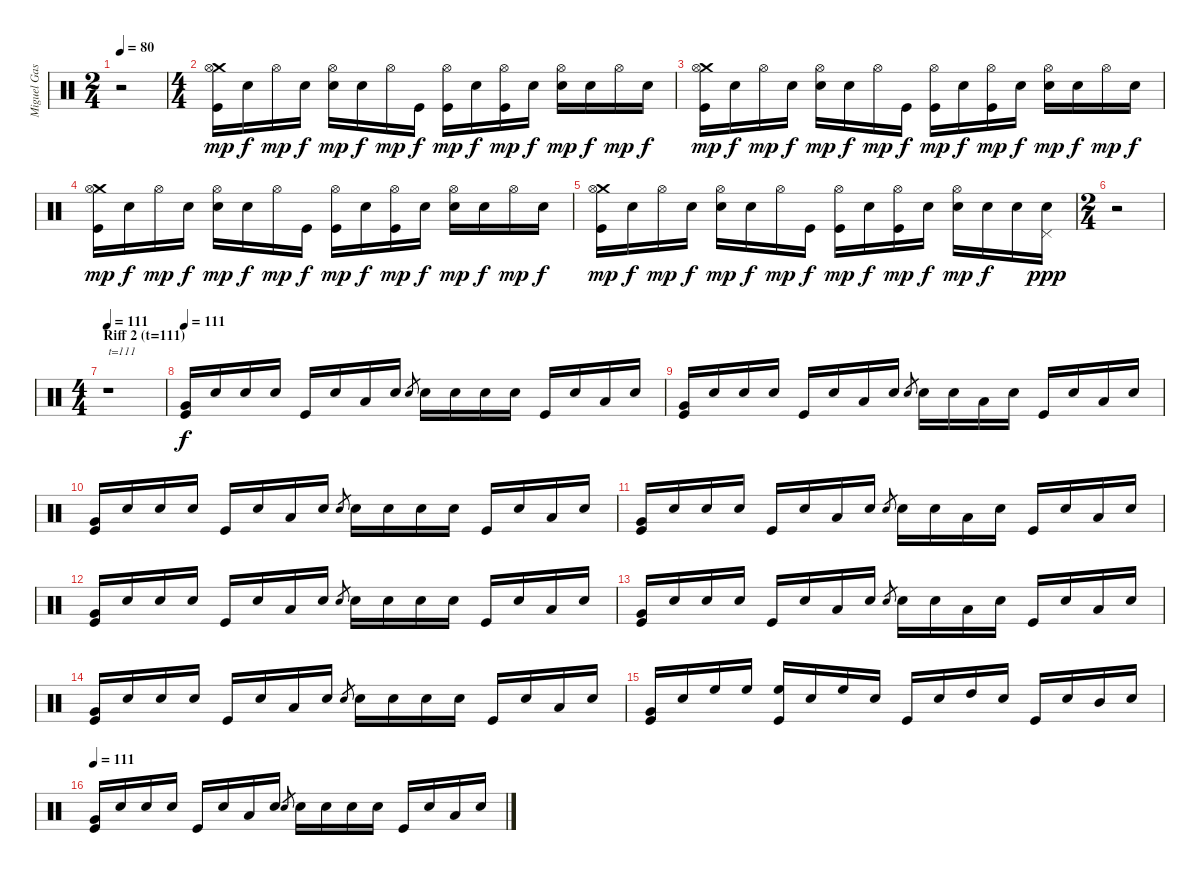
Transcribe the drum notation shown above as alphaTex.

\track ("Miguel Gaspar - Drums" "Miguel Gas") {instrument percussion}
\staff {score}
\articulation defaults
\ts (2 4)
\tempo 80
\clef neutral
\ks c
r.2{dy ppp} |
\ts (4 4)
\section ("" "")
("Crash medium (hit)" "Hi-Hat (open)" "Kick (hit)").16{dy mp} "Snare (hit)".16{dy f} "Hi-Hat (open)".16{dy mp} "Snare (hit)".16{dy f} ("Hi-Hat (open)" "Electric Snare (hit)").16{dy mp} "Snare (hit)".16{dy f} "Hi-Hat (open)".16{dy mp} "Kick (hit)".16{dy f} ("Hi-Hat (open)" "Kick (hit)").16{dy mp} "Snare (hit)".16{dy f} ("Hi-Hat (open)" "Kick (hit)").16{dy mp} "Snare (hit)".16{dy f} ("Hi-Hat (open)" "Electric Snare (hit)").16{dy mp} "Snare (hit)".16{dy f} "Hi-Hat (open)".16{dy mp} "Snare (hit)".16{dy f} |
("Crash medium (hit)" "Hi-Hat (open)" "Kick (hit)").16{dy mp} "Snare (hit)".16{dy f} "Hi-Hat (open)".16{dy mp} "Snare (hit)".16{dy f} ("Hi-Hat (open)" "Electric Snare (hit)").16{dy mp} "Snare (hit)".16{dy f} "Hi-Hat (open)".16{dy mp} "Kick (hit)".16{dy f} ("Hi-Hat (open)" "Kick (hit)").16{dy mp} "Snare (hit)".16{dy f} ("Hi-Hat (open)" "Kick (hit)").16{dy mp} "Snare (hit)".16{dy f} ("Hi-Hat (open)" "Electric Snare (hit)").16{dy mp} "Snare (hit)".16{dy f} "Hi-Hat (open)".16{dy mp} "Snare (hit)".16{dy f} |
("Crash medium (hit)" "Hi-Hat (open)" "Kick (hit)").16{dy mp} "Snare (hit)".16{dy f} "Hi-Hat (open)".16{dy mp} "Snare (hit)".16{dy f} ("Hi-Hat (open)" "Electric Snare (hit)").16{dy mp} "Snare (hit)".16{dy f} "Hi-Hat (open)".16{dy mp} "Kick (hit)".16{dy f} ("Hi-Hat (open)" "Kick (hit)").16{dy mp} "Snare (hit)".16{dy f} ("Hi-Hat (open)" "Kick (hit)").16{dy mp} "Snare (hit)".16{dy f} ("Hi-Hat (open)" "Electric Snare (hit)").16{dy mp} "Snare (hit)".16{dy f} "Hi-Hat (open)".16{dy mp} "Snare (hit)".16{dy f} |
("Crash medium (hit)" "Hi-Hat (open)" "Kick (hit)").16{dy mp} "Snare (hit)".16{dy f} "Hi-Hat (open)".16{dy mp} "Snare (hit)".16{dy f} ("Hi-Hat (open)" "Electric Snare (hit)").16{dy mp} "Snare (hit)".16{dy f} "Hi-Hat (open)".16{dy mp} "Kick (hit)".16{dy f} ("Hi-Hat (open)" "Kick (hit)").16{dy mp} "Snare (hit)".16{dy f} ("Hi-Hat (open)" "Kick (hit)").16{dy mp} "Snare (hit)".16{dy f} ("Hi-Hat (open)" "Electric Snare (hit)").16{dy mp} "Snare (hit)".16{dy f} "Snare (hit)".16 ("Pedal Hi-Hat (hit)" "Snare (hit)").16{dy ppp} |
\ts (2 4)
r.2 |
\ts (4 4)
\section ("" "Riff 2 (t=111)")
\tempo 111
r.1{txt "t=111" volume 16 balance 8} |
\tempo 111
("Very Low Tom (hit)" "Kick (hit)").16{dy f volume 16 balance 8} "Snare (hit)".16 "Snare (hit)".16 "Snare (hit)".16 "Kick (hit)".16 "Snare (hit)".16 "Low Tom (hit)".16 "Snare (hit)".16 "Electric Snare (hit)".8{gr} "Electric Snare (hit)".16 "Snare (hit)".16 "Snare (hit)".16 "Snare (hit)".16 "Kick (hit)".16 "Snare (hit)".16 "Low Tom (hit)".16 "Snare (hit)".16 |
("Very Low Tom (hit)" "Kick (hit)").16 "Snare (hit)".16 "Snare (hit)".16 "Snare (hit)".16 "Kick (hit)".16 "Snare (hit)".16 "Low Tom (hit)".16 "Snare (hit)".16 "Electric Snare (hit)".8{gr} "Electric Snare (hit)".16 "Snare (hit)".16 "Low Tom (hit)".16 "Snare (hit)".16 "Kick (hit)".16 "Snare (hit)".16 "Low Tom (hit)".16 "Snare (hit)".16 |
("Very Low Tom (hit)" "Kick (hit)").16 "Snare (hit)".16 "Snare (hit)".16 "Snare (hit)".16 "Kick (hit)".16 "Snare (hit)".16 "Low Tom (hit)".16 "Snare (hit)".16 "Electric Snare (hit)".8{gr} "Electric Snare (hit)".16 "Snare (hit)".16 "Snare (hit)".16 "Snare (hit)".16 "Kick (hit)".16 "Snare (hit)".16 "Low Tom (hit)".16 "Snare (hit)".16 |
("Very Low Tom (hit)" "Kick (hit)").16 "Snare (hit)".16 "Snare (hit)".16 "Snare (hit)".16 "Kick (hit)".16 "Snare (hit)".16 "Low Tom (hit)".16 "Snare (hit)".16 "Electric Snare (hit)".8{gr} "Electric Snare (hit)".16 "Snare (hit)".16 "Low Tom (hit)".16 "Snare (hit)".16 "Kick (hit)".16 "Snare (hit)".16 "Low Tom (hit)".16 "Snare (hit)".16 |
("Very Low Tom (hit)" "Kick (hit)").16 "Snare (hit)".16 "Snare (hit)".16 "Snare (hit)".16 "Kick (hit)".16 "Snare (hit)".16 "Low Tom (hit)".16 "Snare (hit)".16 "Electric Snare (hit)".8{gr} "Electric Snare (hit)".16 "Snare (hit)".16 "Snare (hit)".16 "Snare (hit)".16 "Kick (hit)".16 "Snare (hit)".16 "Low Tom (hit)".16 "Snare (hit)".16 |
("Very Low Tom (hit)" "Kick (hit)").16 "Snare (hit)".16 "Snare (hit)".16 "Snare (hit)".16 "Kick (hit)".16 "Snare (hit)".16 "Low Tom (hit)".16 "Snare (hit)".16 "Electric Snare (hit)".8{gr} "Electric Snare (hit)".16 "Snare (hit)".16 "Low Tom (hit)".16 "Snare (hit)".16 "Kick (hit)".16 "Snare (hit)".16 "Low Tom (hit)".16 "Snare (hit)".16 |
("Very Low Tom (hit)" "Kick (hit)").16 "Snare (hit)".16 "Snare (hit)".16 "Snare (hit)".16 "Kick (hit)".16 "Snare (hit)".16 "Low Tom (hit)".16 "Snare (hit)".16 "Electric Snare (hit)".8{gr} "Electric Snare (hit)".16 "Snare (hit)".16 "Snare (hit)".16 "Snare (hit)".16 "Kick (hit)".16 "Snare (hit)".16 "Low Tom (hit)".16 "Snare (hit)".16 |
("Very Low Tom (hit)" "Kick (hit)").16 "Snare (hit)".16 "High Floor Tom (hit)".16 "High Floor Tom (hit)".16 ("High Floor Tom (hit)" "Kick (hit)").16 "Snare (hit)".16 "High Floor Tom (hit)".16 "Snare (hit)".16 "Kick (hit)".16 "Snare (hit)".16 "High Tom (hit)".16 "Snare (hit)".16 "Kick (hit)".16 "Snare (hit)".16 "Mid Tom (hit)".16 "Snare (hit)".16 |
\section ("" "")
\tempo 111
("Very Low Tom (hit)" "Kick (hit)").16{volume 16 balance 8} "Snare (hit)".16 "Snare (hit)".16 "Snare (hit)".16 "Kick (hit)".16 "Snare (hit)".16 "Low Tom (hit)".16 "Snare (hit)".16 "Electric Snare (hit)".8{gr} "Electric Snare (hit)".16 "Snare (hit)".16 "Snare (hit)".16 "Snare (hit)".16 "Kick (hit)".16 "Snare (hit)".16 "Low Tom (hit)".16 "Snare (hit)".16
